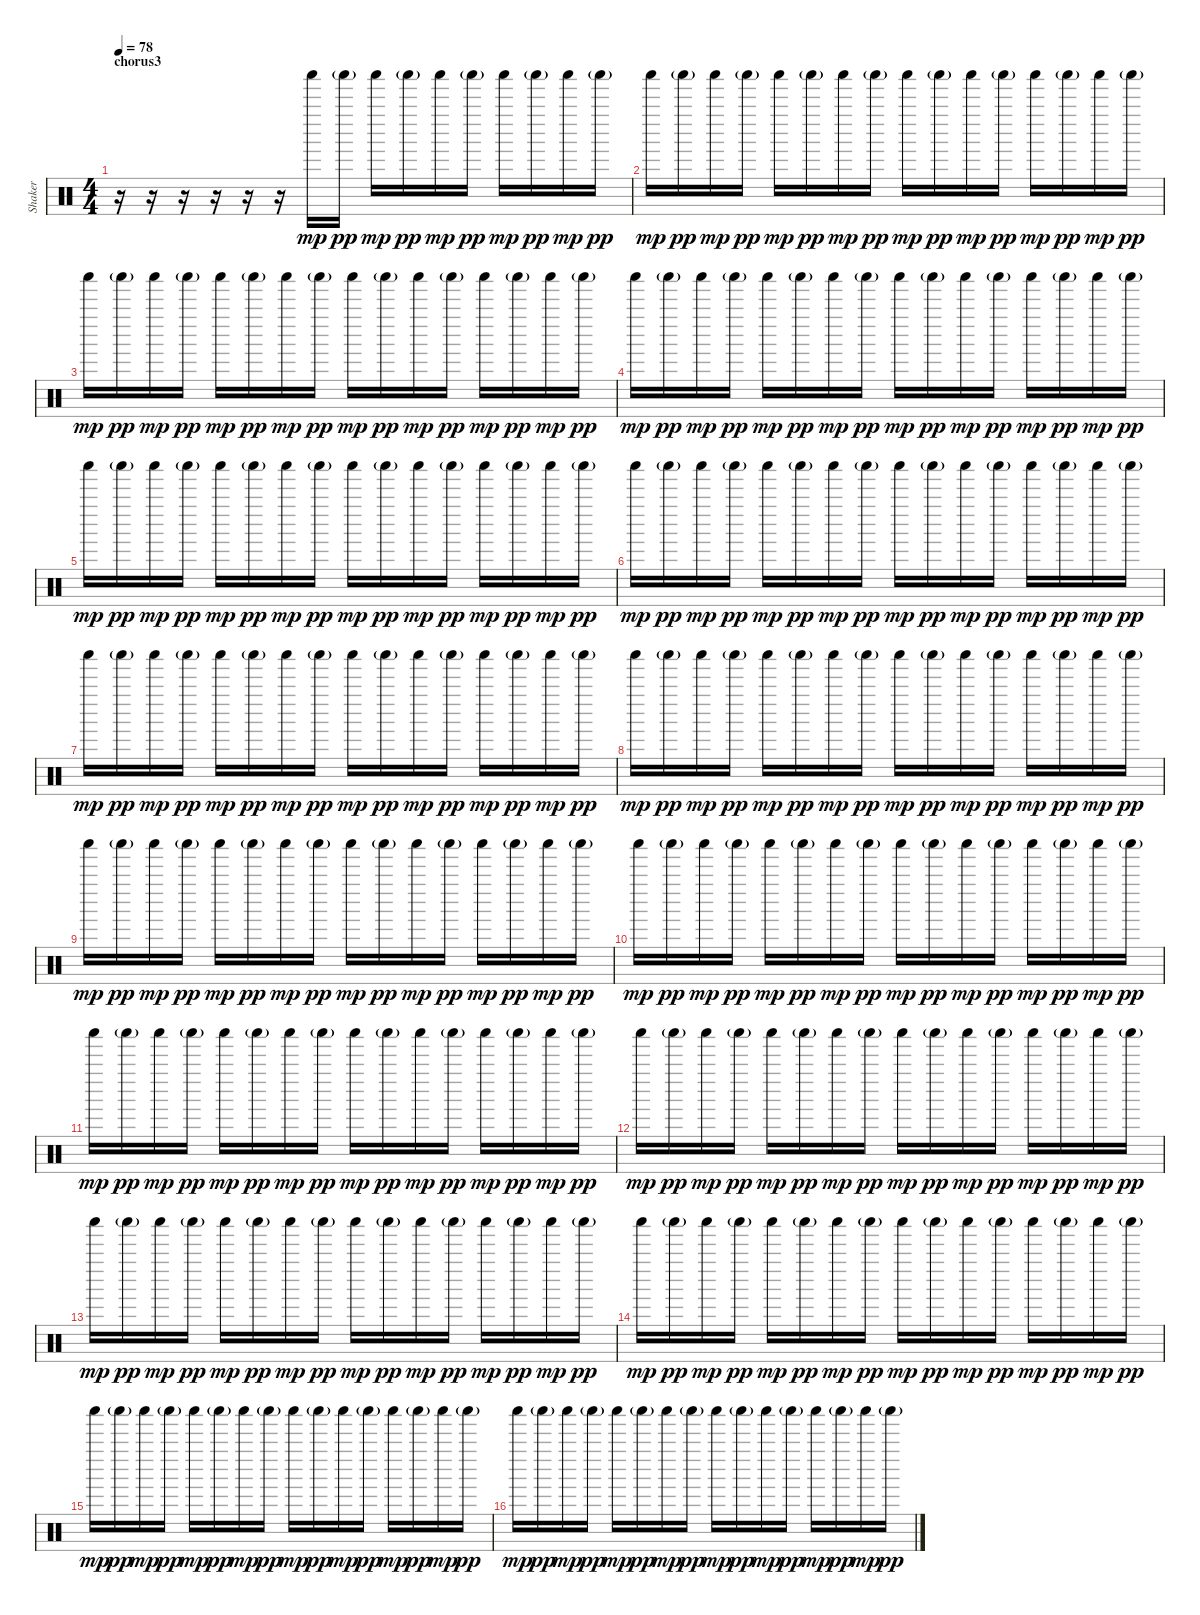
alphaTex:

\track ("Shaker" "Shaker") {instrument percussion}
\staff {score}
\articulation defaults
\ts (4 4)
\section ("" "chorus3")
\tempo 78
\clef neutral
\ks c
r.16{dy pp} r.16 r.16 r.16 r.16 r.16 "Shaker (hit)".16{dy mp} "Shaker (hit)"{g}.16{dy pp} "Shaker (hit)".16{dy mp} "Shaker (hit)"{g}.16{dy pp} "Shaker (hit)".16{dy mp} "Shaker (hit)"{g}.16{dy pp} "Shaker (hit)".16{dy mp} "Shaker (hit)"{g}.16{dy pp} "Shaker (hit)".16{dy mp} "Shaker (hit)"{g}.16{dy pp} |
"Shaker (hit)".16{dy mp} "Shaker (hit)"{g}.16{dy pp} "Shaker (hit)".16{dy mp} "Shaker (hit)"{g}.16{dy pp} "Shaker (hit)".16{dy mp} "Shaker (hit)"{g}.16{dy pp} "Shaker (hit)".16{dy mp} "Shaker (hit)"{g}.16{dy pp} "Shaker (hit)".16{dy mp} "Shaker (hit)"{g}.16{dy pp} "Shaker (hit)".16{dy mp} "Shaker (hit)"{g}.16{dy pp} "Shaker (hit)".16{dy mp} "Shaker (hit)"{g}.16{dy pp} "Shaker (hit)".16{dy mp} "Shaker (hit)"{g}.16{dy pp} |
"Shaker (hit)".16{dy mp} "Shaker (hit)"{g}.16{dy pp} "Shaker (hit)".16{dy mp} "Shaker (hit)"{g}.16{dy pp} "Shaker (hit)".16{dy mp} "Shaker (hit)"{g}.16{dy pp} "Shaker (hit)".16{dy mp} "Shaker (hit)"{g}.16{dy pp} "Shaker (hit)".16{dy mp} "Shaker (hit)"{g}.16{dy pp} "Shaker (hit)".16{dy mp} "Shaker (hit)"{g}.16{dy pp} "Shaker (hit)".16{dy mp} "Shaker (hit)"{g}.16{dy pp} "Shaker (hit)".16{dy mp} "Shaker (hit)"{g}.16{dy pp} |
"Shaker (hit)".16{dy mp} "Shaker (hit)"{g}.16{dy pp} "Shaker (hit)".16{dy mp} "Shaker (hit)"{g}.16{dy pp} "Shaker (hit)".16{dy mp} "Shaker (hit)"{g}.16{dy pp} "Shaker (hit)".16{dy mp} "Shaker (hit)"{g}.16{dy pp} "Shaker (hit)".16{dy mp} "Shaker (hit)"{g}.16{dy pp} "Shaker (hit)".16{dy mp} "Shaker (hit)"{g}.16{dy pp} "Shaker (hit)".16{dy mp} "Shaker (hit)"{g}.16{dy pp} "Shaker (hit)".16{dy mp} "Shaker (hit)"{g}.16{dy pp} |
"Shaker (hit)".16{dy mp} "Shaker (hit)"{g}.16{dy pp} "Shaker (hit)".16{dy mp} "Shaker (hit)"{g}.16{dy pp} "Shaker (hit)".16{dy mp} "Shaker (hit)"{g}.16{dy pp} "Shaker (hit)".16{dy mp} "Shaker (hit)"{g}.16{dy pp} "Shaker (hit)".16{dy mp} "Shaker (hit)"{g}.16{dy pp} "Shaker (hit)".16{dy mp} "Shaker (hit)"{g}.16{dy pp} "Shaker (hit)".16{dy mp} "Shaker (hit)"{g}.16{dy pp} "Shaker (hit)".16{dy mp} "Shaker (hit)"{g}.16{dy pp} |
"Shaker (hit)".16{dy mp} "Shaker (hit)"{g}.16{dy pp} "Shaker (hit)".16{dy mp} "Shaker (hit)"{g}.16{dy pp} "Shaker (hit)".16{dy mp} "Shaker (hit)"{g}.16{dy pp} "Shaker (hit)".16{dy mp} "Shaker (hit)"{g}.16{dy pp} "Shaker (hit)".16{dy mp} "Shaker (hit)"{g}.16{dy pp} "Shaker (hit)".16{dy mp} "Shaker (hit)"{g}.16{dy pp} "Shaker (hit)".16{dy mp} "Shaker (hit)"{g}.16{dy pp} "Shaker (hit)".16{dy mp} "Shaker (hit)"{g}.16{dy pp} |
"Shaker (hit)".16{dy mp} "Shaker (hit)"{g}.16{dy pp} "Shaker (hit)".16{dy mp} "Shaker (hit)"{g}.16{dy pp} "Shaker (hit)".16{dy mp} "Shaker (hit)"{g}.16{dy pp} "Shaker (hit)".16{dy mp} "Shaker (hit)"{g}.16{dy pp} "Shaker (hit)".16{dy mp} "Shaker (hit)"{g}.16{dy pp} "Shaker (hit)".16{dy mp} "Shaker (hit)"{g}.16{dy pp} "Shaker (hit)".16{dy mp} "Shaker (hit)"{g}.16{dy pp} "Shaker (hit)".16{dy mp} "Shaker (hit)"{g}.16{dy pp} |
"Shaker (hit)".16{dy mp} "Shaker (hit)"{g}.16{dy pp} "Shaker (hit)".16{dy mp} "Shaker (hit)"{g}.16{dy pp} "Shaker (hit)".16{dy mp} "Shaker (hit)"{g}.16{dy pp} "Shaker (hit)".16{dy mp} "Shaker (hit)"{g}.16{dy pp} "Shaker (hit)".16{dy mp} "Shaker (hit)"{g}.16{dy pp} "Shaker (hit)".16{dy mp} "Shaker (hit)"{g}.16{dy pp} "Shaker (hit)".16{dy mp} "Shaker (hit)"{g}.16{dy pp} "Shaker (hit)".16{dy mp} "Shaker (hit)"{g}.16{dy pp} |
"Shaker (hit)".16{dy mp} "Shaker (hit)"{g}.16{dy pp} "Shaker (hit)".16{dy mp} "Shaker (hit)"{g}.16{dy pp} "Shaker (hit)".16{dy mp} "Shaker (hit)"{g}.16{dy pp} "Shaker (hit)".16{dy mp} "Shaker (hit)"{g}.16{dy pp} "Shaker (hit)".16{dy mp} "Shaker (hit)"{g}.16{dy pp} "Shaker (hit)".16{dy mp} "Shaker (hit)"{g}.16{dy pp} "Shaker (hit)".16{dy mp} "Shaker (hit)"{g}.16{dy pp} "Shaker (hit)".16{dy mp} "Shaker (hit)"{g}.16{dy pp} |
"Shaker (hit)".16{dy mp} "Shaker (hit)"{g}.16{dy pp} "Shaker (hit)".16{dy mp} "Shaker (hit)"{g}.16{dy pp} "Shaker (hit)".16{dy mp} "Shaker (hit)"{g}.16{dy pp} "Shaker (hit)".16{dy mp} "Shaker (hit)"{g}.16{dy pp} "Shaker (hit)".16{dy mp} "Shaker (hit)"{g}.16{dy pp} "Shaker (hit)".16{dy mp} "Shaker (hit)"{g}.16{dy pp} "Shaker (hit)".16{dy mp} "Shaker (hit)"{g}.16{dy pp} "Shaker (hit)".16{dy mp} "Shaker (hit)"{g}.16{dy pp} |
"Shaker (hit)".16{dy mp} "Shaker (hit)"{g}.16{dy pp} "Shaker (hit)".16{dy mp} "Shaker (hit)"{g}.16{dy pp} "Shaker (hit)".16{dy mp} "Shaker (hit)"{g}.16{dy pp} "Shaker (hit)".16{dy mp} "Shaker (hit)"{g}.16{dy pp} "Shaker (hit)".16{dy mp} "Shaker (hit)"{g}.16{dy pp} "Shaker (hit)".16{dy mp} "Shaker (hit)"{g}.16{dy pp} "Shaker (hit)".16{dy mp} "Shaker (hit)"{g}.16{dy pp} "Shaker (hit)".16{dy mp} "Shaker (hit)"{g}.16{dy pp} |
"Shaker (hit)".16{dy mp} "Shaker (hit)"{g}.16{dy pp} "Shaker (hit)".16{dy mp} "Shaker (hit)"{g}.16{dy pp} "Shaker (hit)".16{dy mp} "Shaker (hit)"{g}.16{dy pp} "Shaker (hit)".16{dy mp} "Shaker (hit)"{g}.16{dy pp} "Shaker (hit)".16{dy mp} "Shaker (hit)"{g}.16{dy pp} "Shaker (hit)".16{dy mp} "Shaker (hit)"{g}.16{dy pp} "Shaker (hit)".16{dy mp} "Shaker (hit)"{g}.16{dy pp} "Shaker (hit)".16{dy mp} "Shaker (hit)"{g}.16{dy pp} |
"Shaker (hit)".16{dy mp} "Shaker (hit)"{g}.16{dy pp} "Shaker (hit)".16{dy mp} "Shaker (hit)"{g}.16{dy pp} "Shaker (hit)".16{dy mp} "Shaker (hit)"{g}.16{dy pp} "Shaker (hit)".16{dy mp} "Shaker (hit)"{g}.16{dy pp} "Shaker (hit)".16{dy mp} "Shaker (hit)"{g}.16{dy pp} "Shaker (hit)".16{dy mp} "Shaker (hit)"{g}.16{dy pp} "Shaker (hit)".16{dy mp} "Shaker (hit)"{g}.16{dy pp} "Shaker (hit)".16{dy mp} "Shaker (hit)"{g}.16{dy pp} |
"Shaker (hit)".16{dy mp} "Shaker (hit)"{g}.16{dy pp} "Shaker (hit)".16{dy mp} "Shaker (hit)"{g}.16{dy pp} "Shaker (hit)".16{dy mp} "Shaker (hit)"{g}.16{dy pp} "Shaker (hit)".16{dy mp} "Shaker (hit)"{g}.16{dy pp} "Shaker (hit)".16{dy mp} "Shaker (hit)"{g}.16{dy pp} "Shaker (hit)".16{dy mp} "Shaker (hit)"{g}.16{dy pp} "Shaker (hit)".16{dy mp} "Shaker (hit)"{g}.16{dy pp} "Shaker (hit)".16{dy mp} "Shaker (hit)"{g}.16{dy pp} |
"Shaker (hit)".16{dy mp} "Shaker (hit)"{g}.16{dy pp} "Shaker (hit)".16{dy mp} "Shaker (hit)"{g}.16{dy pp} "Shaker (hit)".16{dy mp} "Shaker (hit)"{g}.16{dy pp} "Shaker (hit)".16{dy mp} "Shaker (hit)"{g}.16{dy pp} "Shaker (hit)".16{dy mp} "Shaker (hit)"{g}.16{dy pp} "Shaker (hit)".16{dy mp} "Shaker (hit)"{g}.16{dy pp} "Shaker (hit)".16{dy mp} "Shaker (hit)"{g}.16{dy pp} "Shaker (hit)".16{dy mp} "Shaker (hit)"{g}.16{dy pp} |
"Shaker (hit)".16{dy mp} "Shaker (hit)"{g}.16{dy pp} "Shaker (hit)".16{dy mp} "Shaker (hit)"{g}.16{dy pp} "Shaker (hit)".16{dy mp} "Shaker (hit)"{g}.16{dy pp} "Shaker (hit)".16{dy mp} "Shaker (hit)"{g}.16{dy pp} "Shaker (hit)".16{dy mp} "Shaker (hit)"{g}.16{dy pp} "Shaker (hit)".16{dy mp} "Shaker (hit)"{g}.16{dy pp} "Shaker (hit)".16{dy mp} "Shaker (hit)"{g}.16{dy pp} "Shaker (hit)".16{dy mp} "Shaker (hit)"{g}.16{dy pp}
